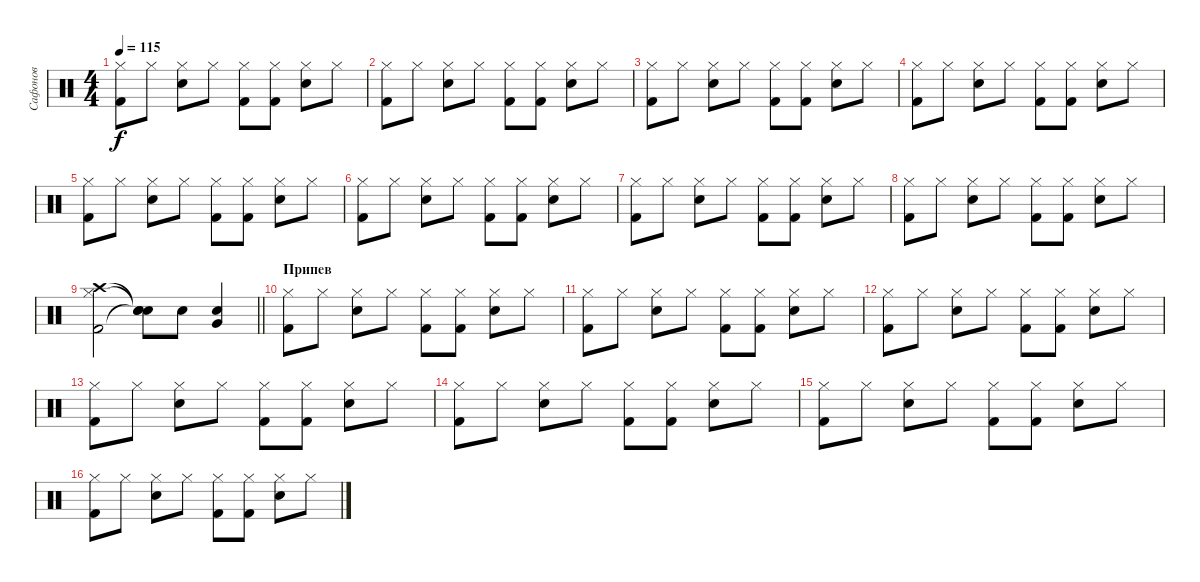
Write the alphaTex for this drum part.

\track ("Сафонов" "Сафонов") {instrument percussion}
\staff {score}
\articulation defaults
\ts (4 4)
\tempo 115
\clef neutral
\ks c
("Hi-Hat (closed)" "Kick (hit) 2").8{dy f} "Hi-Hat (closed)".8 ("Hi-Hat (closed)" "Electric Snare (hit)").8 "Hi-Hat (closed)".8 ("Hi-Hat (closed)" "Kick (hit) 2").8 ("Hi-Hat (closed)" "Kick (hit) 2").8 ("Hi-Hat (closed)" "Electric Snare (hit)").8 "Hi-Hat (closed)".8 |
("Hi-Hat (closed)" "Kick (hit) 2").8 "Hi-Hat (closed)".8 ("Hi-Hat (closed)" "Electric Snare (hit)").8 "Hi-Hat (closed)".8 ("Hi-Hat (closed)" "Kick (hit) 2").8 ("Hi-Hat (closed)" "Kick (hit) 2").8 ("Hi-Hat (closed)" "Electric Snare (hit)").8 "Hi-Hat (closed)".8 |
("Hi-Hat (closed)" "Kick (hit) 2").8 "Hi-Hat (closed)".8 ("Hi-Hat (closed)" "Electric Snare (hit)").8 "Hi-Hat (closed)".8 ("Hi-Hat (closed)" "Kick (hit) 2").8 ("Hi-Hat (closed)" "Kick (hit) 2").8 ("Hi-Hat (closed)" "Electric Snare (hit)").8 "Hi-Hat (closed)".8 |
("Hi-Hat (closed)" "Kick (hit) 2").8 "Hi-Hat (closed)".8 ("Hi-Hat (closed)" "Electric Snare (hit)").8 "Hi-Hat (closed)".8 ("Hi-Hat (closed)" "Kick (hit) 2").8 ("Hi-Hat (closed)" "Kick (hit) 2").8 ("Hi-Hat (closed)" "Electric Snare (hit)").8 "Hi-Hat (closed)".8 |
("Hi-Hat (closed)" "Kick (hit) 2").8 "Hi-Hat (closed)".8 ("Hi-Hat (closed)" "Electric Snare (hit)").8 "Hi-Hat (closed)".8 ("Hi-Hat (closed)" "Kick (hit) 2").8 ("Hi-Hat (closed)" "Kick (hit) 2").8 ("Hi-Hat (closed)" "Electric Snare (hit)").8 "Hi-Hat (closed)".8 |
("Hi-Hat (closed)" "Kick (hit) 2").8 "Hi-Hat (closed)".8 ("Hi-Hat (closed)" "Electric Snare (hit)").8 "Hi-Hat (closed)".8 ("Hi-Hat (closed)" "Kick (hit) 2").8 ("Hi-Hat (closed)" "Kick (hit) 2").8 ("Hi-Hat (closed)" "Electric Snare (hit)").8 "Hi-Hat (closed)".8 |
("Hi-Hat (closed)" "Kick (hit) 2").8 "Hi-Hat (closed)".8 ("Hi-Hat (closed)" "Electric Snare (hit)").8 "Hi-Hat (closed)".8 ("Hi-Hat (closed)" "Kick (hit) 2").8 ("Hi-Hat (closed)" "Kick (hit) 2").8 ("Hi-Hat (closed)" "Electric Snare (hit)").8 "Hi-Hat (closed)".8 |
("Hi-Hat (closed)" "Kick (hit) 2").8 "Hi-Hat (closed)".8 ("Hi-Hat (closed)" "Electric Snare (hit)").8 "Hi-Hat (closed)".8 ("Hi-Hat (closed)" "Kick (hit) 2").8 ("Hi-Hat (closed)" "Kick (hit) 2").8 ("Hi-Hat (closed)" "Electric Snare (hit)").8 "Hi-Hat (closed)".8 |
\barLineRight lightlight
("Crash high (hit)" "Hi-Hat (closed)" "Kick (hit) 2").2 ("Snare (hit)"{t} "Snare (hit)"{t} "Snare (hit)"{t}).8 "Electric Snare (hit)".8 ("Very Low Tom (hit)" "Electric Snare (hit)").4 |
\section ("" "Припев")
("Hi-Hat (closed)" "Kick (hit) 2").8 "Hi-Hat (closed)".8 ("Hi-Hat (closed)" "Electric Snare (hit)").8 "Hi-Hat (closed)".8 ("Hi-Hat (closed)" "Kick (hit) 2").8 ("Hi-Hat (closed)" "Kick (hit) 2").8 ("Hi-Hat (closed)" "Electric Snare (hit)").8 "Hi-Hat (closed)".8 |
("Hi-Hat (closed)" "Kick (hit) 2").8 "Hi-Hat (closed)".8 ("Hi-Hat (closed)" "Electric Snare (hit)").8 "Hi-Hat (closed)".8 ("Hi-Hat (closed)" "Kick (hit) 2").8 ("Hi-Hat (closed)" "Kick (hit) 2").8 ("Hi-Hat (closed)" "Electric Snare (hit)").8 "Hi-Hat (closed)".8 |
("Hi-Hat (closed)" "Kick (hit) 2").8 "Hi-Hat (closed)".8 ("Hi-Hat (closed)" "Electric Snare (hit)").8 "Hi-Hat (closed)".8 ("Hi-Hat (closed)" "Kick (hit) 2").8 ("Hi-Hat (closed)" "Kick (hit) 2").8 ("Hi-Hat (closed)" "Electric Snare (hit)").8 "Hi-Hat (closed)".8 |
("Hi-Hat (closed)" "Kick (hit) 2").8 "Hi-Hat (closed)".8 ("Hi-Hat (closed)" "Electric Snare (hit)").8 "Hi-Hat (closed)".8 ("Hi-Hat (closed)" "Kick (hit) 2").8 ("Hi-Hat (closed)" "Kick (hit) 2").8 ("Hi-Hat (closed)" "Electric Snare (hit)").8 "Hi-Hat (closed)".8 |
("Hi-Hat (closed)" "Kick (hit) 2").8 "Hi-Hat (closed)".8 ("Hi-Hat (closed)" "Electric Snare (hit)").8 "Hi-Hat (closed)".8 ("Hi-Hat (closed)" "Kick (hit) 2").8 ("Hi-Hat (closed)" "Kick (hit) 2").8 ("Hi-Hat (closed)" "Electric Snare (hit)").8 "Hi-Hat (closed)".8 |
("Hi-Hat (closed)" "Kick (hit) 2").8 "Hi-Hat (closed)".8 ("Hi-Hat (closed)" "Electric Snare (hit)").8 "Hi-Hat (closed)".8 ("Hi-Hat (closed)" "Kick (hit) 2").8 ("Hi-Hat (closed)" "Kick (hit) 2").8 ("Hi-Hat (closed)" "Electric Snare (hit)").8 "Hi-Hat (closed)".8 |
("Hi-Hat (closed)" "Kick (hit) 2").8 "Hi-Hat (closed)".8 ("Hi-Hat (closed)" "Electric Snare (hit)").8 "Hi-Hat (closed)".8 ("Hi-Hat (closed)" "Kick (hit) 2").8 ("Hi-Hat (closed)" "Kick (hit) 2").8 ("Hi-Hat (closed)" "Electric Snare (hit)").8 "Hi-Hat (closed)".8
